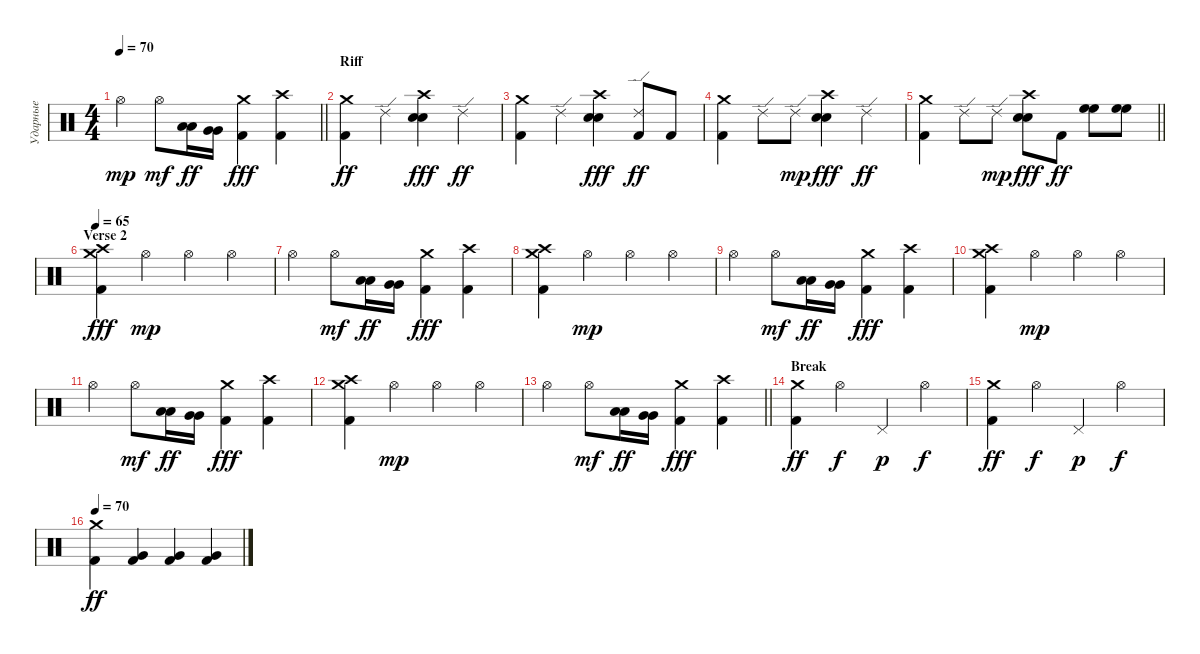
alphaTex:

\track ("Ударные" "Ударные") {instrument percussion}
\staff {score}
\articulation defaults
\ts (4 4)
\tempo 70
\clef neutral
\barLineRight lightlight
\ks aminor "Hi-Hat (open)".4{dy mp} "Hi-Hat (open)".8{dy mf}
("Low Tom (hit)" "Low Tom (hit)").16{dy ff} ("Very Low Tom (hit)" "Very Low Tom (hit)").16 ("Crash medium (hit)" "Kick (hit) 2").4{dy fff} ("Crash high (hit)" "Kick (hit) 2").4 |
\section ("" "Riff")
("Crash medium (hit)" "Kick (hit) 2").4{dy ff} "Ride (edge) 2".4 ("Crash high (hit)" "Snare (hit) 2" "Electric Snare (hit)").4{dy fff} "Ride (edge) 2".4{dy ff} |
("Crash medium (hit)" "Kick (hit) 2").4 "Ride (edge) 2".4 ("Crash high (hit)" "Snare (hit) 2" "Electric Snare (hit)").4{dy fff} ("Ride (edge) 2" "Kick (hit) 2").8{dy ff} "Kick (hit) 2".8 |
("Crash medium (hit)" "Kick (hit) 2").4 "Ride (edge) 2".8 "Ride (edge) 2".8{dy mp} ("Crash high (hit)" "Snare (hit) 2" "Electric Snare (hit)").4{dy fff} "Ride (edge) 2".4{dy ff} |
\barLineRight lightlight
("Crash medium (hit)" "Kick (hit) 2").4 "Ride (edge) 2".8 "Ride (edge) 2".8{dy mp} ("Crash high (hit)" "Snare (hit) 2" "Electric Snare (hit)").8{dy fff} "Kick (hit) 2".8{dy ff} ("High Floor Tom (hit)" "High Floor Tom (hit)").8 ("High Floor Tom (hit)" "High Floor Tom (hit)").8 |
\section ("" "Verse 2")
\tempo 65
("Crash medium (hit)" "Crash high (hit)" "Kick (hit) 2").4{dy fff} "Hi-Hat (open)".4{dy mp} "Hi-Hat (open)".4 "Hi-Hat (open)".4 |
"Hi-Hat (open)".4 "Hi-Hat (open)".8{dy mf} ("Low Tom (hit)" "Low Tom (hit)").16{dy ff} ("Very Low Tom (hit)" "Very Low Tom (hit)").16 ("Crash medium (hit)" "Kick (hit) 2").4{dy fff} ("Crash high (hit)" "Kick (hit) 2").4 |
("Crash medium (hit)" "Crash high (hit)" "Kick (hit) 2").4 "Hi-Hat (open)".4{dy mp} "Hi-Hat (open)".4 "Hi-Hat (open)".4 |
"Hi-Hat (open)".4 "Hi-Hat (open)".8{dy mf} ("Low Tom (hit)" "Low Tom (hit)").16{dy ff} ("Very Low Tom (hit)" "Very Low Tom (hit)").16 ("Crash medium (hit)" "Kick (hit) 2").4{dy fff} ("Crash high (hit)" "Kick (hit) 2").4 |
("Crash medium (hit)" "Crash high (hit)" "Kick (hit) 2").4 "Hi-Hat (open)".4{dy mp} "Hi-Hat (open)".4 "Hi-Hat (open)".4 |
"Hi-Hat (open)".4 "Hi-Hat (open)".8{dy mf} ("Low Tom (hit)" "Low Tom (hit)").16{dy ff} ("Very Low Tom (hit)" "Very Low Tom (hit)").16 ("Crash medium (hit)" "Kick (hit) 2").4{dy fff} ("Crash high (hit)" "Kick (hit) 2").4 |
("Crash medium (hit)" "Crash high (hit)" "Kick (hit) 2").4 "Hi-Hat (open)".4{dy mp} "Hi-Hat (open)".4 "Hi-Hat (open)".4 |
\barLineRight lightlight "Hi-Hat (open)".4 "Hi-Hat (open)".8{dy mf}
("Low Tom (hit)" "Low Tom (hit)").16{dy ff} ("Very Low Tom (hit)" "Very Low Tom (hit)").16 ("Crash medium (hit)" "Kick (hit) 2").4{dy fff} ("Crash high (hit)" "Kick (hit) 2").4 |
\section ("" "Break")
("Crash medium (hit)" "Kick (hit) 2").4{dy ff} "Hi-Hat (open)".4{dy f} "Pedal Hi-Hat (hit)".4{dy p} "Hi-Hat (open)".4{dy f} |
("Crash medium (hit)" "Kick (hit) 2").4{dy ff} "Hi-Hat (open)".4{dy f} "Pedal Hi-Hat (hit)".4{dy p} "Hi-Hat (open)".4{dy f} |
\tempo 70
("Crash medium (hit)" "Kick (hit) 2").4{dy ff} ("Very Low Tom (hit)" "Kick (hit) 2").4 ("Very Low Tom (hit)" "Kick (hit) 2").4 ("Very Low Tom (hit)" "Kick (hit) 2").4
